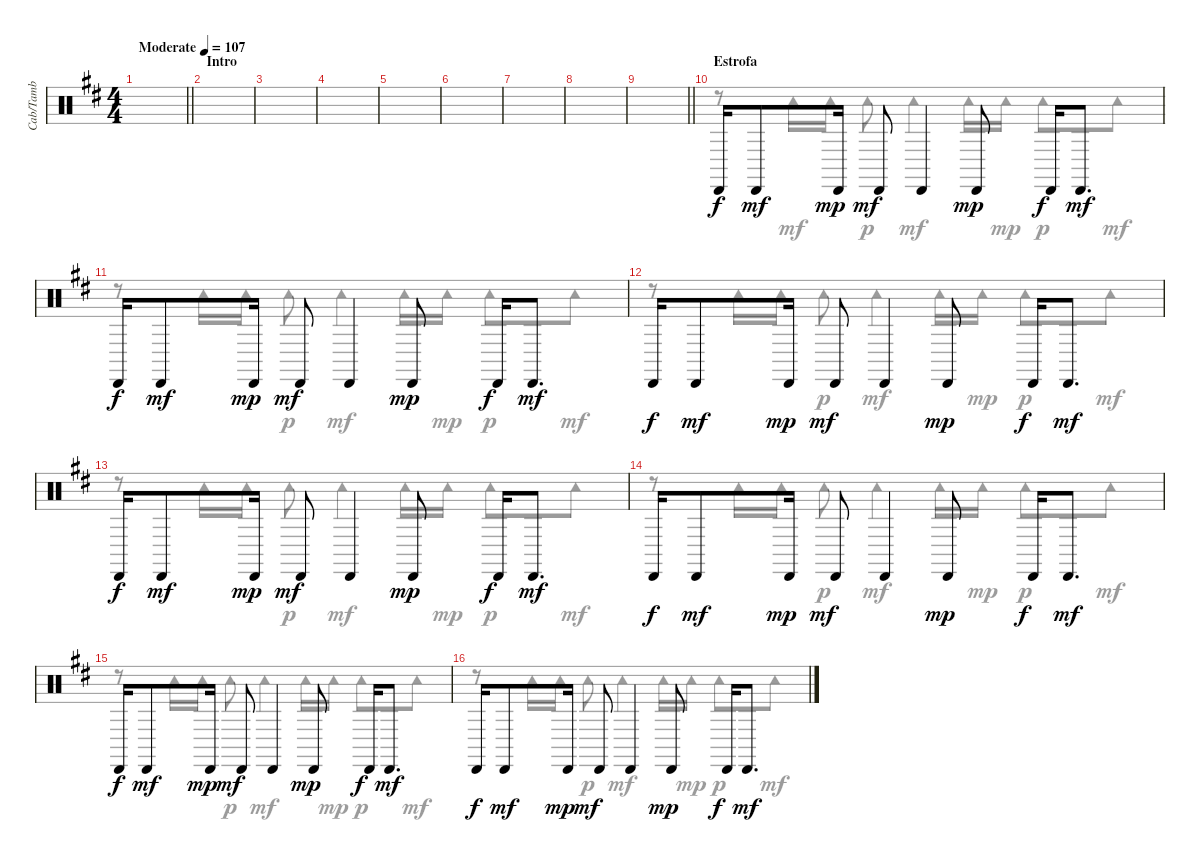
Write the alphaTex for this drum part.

\track ("Cab/Tamb" "Cab/Tamb") {instrument percussion}
\staff {score}
\articulation defaults
\voice
\ts (4 4)
\tempo (107 "Moderate")
\clef neutral
\barLineRight lightlight
\ks d
|
\section ("" "Intro")
|
|
|
|
|
|
|
\barLineRight lightlight
|
\section ("" "Estrofa")
"Cabasa (hit)".16 "Cabasa (hit)".8{dy mf} "Cabasa (hit)".16{dy mp} "Cabasa (hit)".8{dy mf} "Cabasa (hit)".4 "Cabasa (hit)".8{dy mp} "Cabasa (hit)".16{dy f} "Cabasa (hit)".8{d dy mf} |
"Cabasa (hit)".16{dy f} "Cabasa (hit)".8{dy mf} "Cabasa (hit)".16{dy mp} "Cabasa (hit)".8{dy mf} "Cabasa (hit)".4 "Cabasa (hit)".8{dy mp} "Cabasa (hit)".16{dy f} "Cabasa (hit)".8{d dy mf} |
"Cabasa (hit)".16{dy f} "Cabasa (hit)".8{dy mf} "Cabasa (hit)".16{dy mp} "Cabasa (hit)".8{dy mf} "Cabasa (hit)".4 "Cabasa (hit)".8{dy mp} "Cabasa (hit)".16{dy f} "Cabasa (hit)".8{d dy mf} |
"Cabasa (hit)".16{dy f} "Cabasa (hit)".8{dy mf} "Cabasa (hit)".16{dy mp} "Cabasa (hit)".8{dy mf} "Cabasa (hit)".4 "Cabasa (hit)".8{dy mp} "Cabasa (hit)".16{dy f} "Cabasa (hit)".8{d dy mf} |
"Cabasa (hit)".16{dy f} "Cabasa (hit)".8{dy mf} "Cabasa (hit)".16{dy mp} "Cabasa (hit)".8{dy mf} "Cabasa (hit)".4 "Cabasa (hit)".8{dy mp} "Cabasa (hit)".16{dy f} "Cabasa (hit)".8{d dy mf} |
"Cabasa (hit)".16{dy f} "Cabasa (hit)".8{dy mf} "Cabasa (hit)".16{dy mp} "Cabasa (hit)".8{dy mf} "Cabasa (hit)".4 "Cabasa (hit)".8{dy mp} "Cabasa (hit)".16{dy f} "Cabasa (hit)".8{d dy mf} |
"Cabasa (hit)".16{dy f} "Cabasa (hit)".8{dy mf} "Cabasa (hit)".16{dy mp} "Cabasa (hit)".8{dy mf} "Cabasa (hit)".4 "Cabasa (hit)".8{dy mp} "Cabasa (hit)".16{dy f} "Cabasa (hit)".8{d dy mf}
\voice
\clef neutral
\ottava regular
\simile none
\barLineRight lightlight
\ks d
|
|
|
|
|
|
|
|
\barLineRight lightlight
|
r.8 "Tambourine (hit)".16 "Tambourine (hit)".16{dy mp} "Tambourine (hit)".8{dy p} "Tambourine (hit)".4{dy mf} "Tambourine (hit)".16 "Tambourine (hit)".16{dy mp} "Tambourine (hit)".8{dy p} "Tambourine (hit)".8{dy mf} |
r.8 "Tambourine (hit)".16 "Tambourine (hit)".16{dy mp} "Tambourine (hit)".8{dy p} "Tambourine (hit)".4{dy mf} "Tambourine (hit)".16 "Tambourine (hit)".16{dy mp} "Tambourine (hit)".8{dy p} "Tambourine (hit)".8{dy mf} |
r.8 "Tambourine (hit)".16 "Tambourine (hit)".16{dy mp} "Tambourine (hit)".8{dy p} "Tambourine (hit)".4{dy mf} "Tambourine (hit)".16 "Tambourine (hit)".16{dy mp} "Tambourine (hit)".8{dy p} "Tambourine (hit)".8{dy mf} |
r.8 "Tambourine (hit)".16 "Tambourine (hit)".16{dy mp} "Tambourine (hit)".8{dy p} "Tambourine (hit)".4{dy mf} "Tambourine (hit)".16 "Tambourine (hit)".16{dy mp} "Tambourine (hit)".8{dy p} "Tambourine (hit)".8{dy mf} |
r.8 "Tambourine (hit)".16 "Tambourine (hit)".16{dy mp} "Tambourine (hit)".8{dy p} "Tambourine (hit)".4{dy mf} "Tambourine (hit)".16 "Tambourine (hit)".16{dy mp} "Tambourine (hit)".8{dy p} "Tambourine (hit)".8{dy mf} |
r.8 "Tambourine (hit)".16 "Tambourine (hit)".16{dy mp} "Tambourine (hit)".8{dy p} "Tambourine (hit)".4{dy mf} "Tambourine (hit)".16 "Tambourine (hit)".16{dy mp} "Tambourine (hit)".8{dy p} "Tambourine (hit)".8{dy mf} |
r.8 "Tambourine (hit)".16 "Tambourine (hit)".16{dy mp} "Tambourine (hit)".8{dy p} "Tambourine (hit)".4{dy mf} "Tambourine (hit)".16 "Tambourine (hit)".16{dy mp} "Tambourine (hit)".8{dy p} "Tambourine (hit)".8{dy mf}
